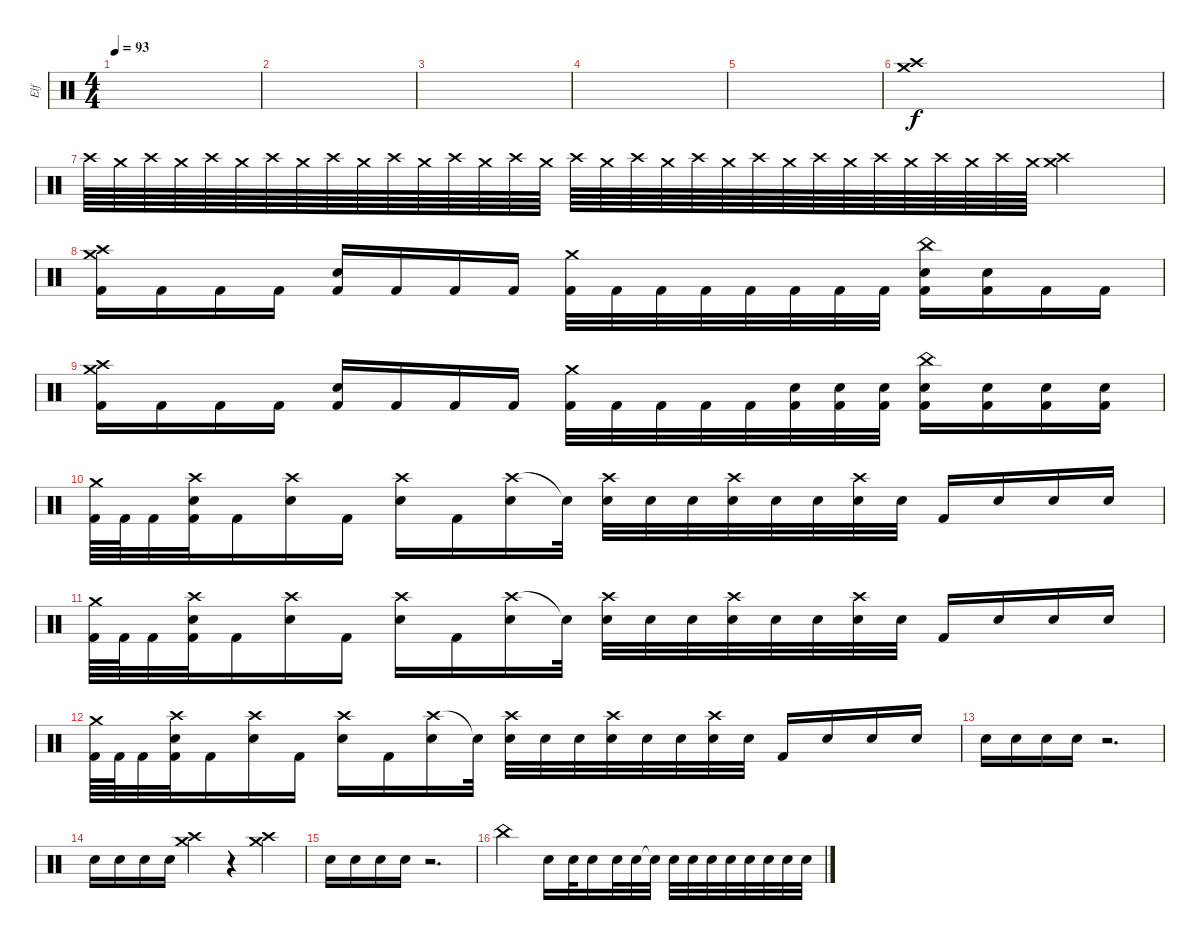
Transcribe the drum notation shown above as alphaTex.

\track ("Elf" "Elf") {instrument percussion}
\staff {score}
\articulation defaults
\ts (4 4)
\tempo 93
\clef neutral
\ks c
|
|
|
|
|
("Crash high (hit)" "Crash medium (hit)").1 |
"Crash high (hit)".64 "Crash medium (hit)".64 "Crash high (hit)".64 "Crash medium (hit)".64 "Crash high (hit)".64 "Crash medium (hit)".64 "Crash high (hit)".64 "Crash medium (hit)".64 "Crash high (hit)".64 "Crash medium (hit)".64 "Crash high (hit)".64 "Crash medium (hit)".64 "Crash high (hit)".64 "Crash medium (hit)".64 "Crash high (hit)".64 "Crash medium (hit)".64 "Crash high (hit)".64 "Crash medium (hit)".64 "Crash high (hit)".64 "Crash medium (hit)".64 "Crash high (hit)".64 "Crash medium (hit)".64 "Crash high (hit)".64 "Crash medium (hit)".64 "Crash high (hit)".64 "Crash medium (hit)".64 "Crash high (hit)".64 "Crash medium (hit)".64 "Crash high (hit)".64 "Crash medium (hit)".64 "Crash high (hit)".64 "Crash medium (hit)".64 ("Crash high (hit)" "Crash medium (hit)").2 |
("Crash high (hit)" "Crash medium (hit)" "Kick (hit) 2").16 "Kick (hit) 2".16 "Kick (hit) 2".16 "Kick (hit) 2".16 ("Snare (hit) 2" "Kick (hit) 2").16 "Kick (hit) 2".16 "Kick (hit) 2".16 "Kick (hit) 2".16 ("Crash medium (hit)" "Kick (hit) 2").32 "Kick (hit) 2".32 "Kick (hit) 2".32 "Kick (hit) 2".32 "Kick (hit) 2".32 "Kick (hit) 2".32 "Kick (hit) 2".32 "Kick (hit) 2".32 ("China (hit)" "Snare (hit) 2" "Kick (hit) 2").16 ("Snare (hit) 2" "Kick (hit) 2").16 "Kick (hit) 2".16 "Kick (hit) 2".16 |
("Crash high (hit)" "Crash medium (hit)" "Kick (hit) 2").16 "Kick (hit) 2".16 "Kick (hit) 2".16 "Kick (hit) 2".16 ("Snare (hit) 2" "Kick (hit) 2").16 "Kick (hit) 2".16 "Kick (hit) 2".16 "Kick (hit) 2".16 ("Crash medium (hit)" "Kick (hit) 2").32 "Kick (hit) 2".32 "Kick (hit) 2".32 "Kick (hit) 2".32 "Kick (hit) 2".32 ("Snare (hit) 2" "Kick (hit) 2").32 ("Snare (hit) 2" "Kick (hit) 2").32 ("Snare (hit) 2" "Kick (hit) 2").32 ("China (hit)" "Snare (hit) 2" "Kick (hit) 2").16 ("Snare (hit) 2" "Kick (hit) 2").16 ("Snare (hit) 2" "Kick (hit) 2").16 ("Snare (hit) 2" "Kick (hit) 2").16 |
("Crash medium (hit)" "Kick (hit) 2").64 "Kick (hit) 2".64 "Kick (hit) 2".32 ("Crash high (hit)" "Snare (hit) 2" "Kick (hit) 2").32 "Kick (hit) 2".16 ("Crash high (hit)" "Snare (hit) 2").16 "Kick (hit) 2".16 ("Crash high (hit)" "Snare (hit) 2").16 "Kick (hit) 2".16 ("Crash high (hit)" "Snare (hit) 2").16 "Snare (hit)"{t}.32 ("Crash high (hit)" "Snare (hit) 2").32 "Snare (hit) 2".32 "Snare (hit) 2".32 ("Crash high (hit)" "Snare (hit) 2").32 "Snare (hit) 2".32 "Snare (hit) 2".32 ("Crash high (hit)" "Snare (hit) 2").32 "Snare (hit) 2".32 "Kick (hit) 2".16 "Snare (hit) 2".16 "Snare (hit) 2".16 "Snare (hit) 2".16 |
("Crash medium (hit)" "Kick (hit) 2").64 "Kick (hit) 2".64 "Kick (hit) 2".32 ("Crash high (hit)" "Snare (hit) 2" "Kick (hit) 2").32 "Kick (hit) 2".16 ("Crash high (hit)" "Snare (hit) 2").16 "Kick (hit) 2".16 ("Crash high (hit)" "Snare (hit) 2").16 "Kick (hit) 2".16 ("Crash high (hit)" "Snare (hit) 2").16 "Snare (hit)"{t}.32 ("Crash high (hit)" "Snare (hit) 2").32 "Snare (hit) 2".32 "Snare (hit) 2".32 ("Crash high (hit)" "Snare (hit) 2").32 "Snare (hit) 2".32 "Snare (hit) 2".32 ("Crash high (hit)" "Snare (hit) 2").32 "Snare (hit) 2".32 "Kick (hit) 2".16 "Snare (hit) 2".16 "Snare (hit) 2".16 "Snare (hit) 2".16 |
("Crash medium (hit)" "Kick (hit) 2").64 "Kick (hit) 2".64 "Kick (hit) 2".32 ("Crash high (hit)" "Snare (hit) 2" "Kick (hit) 2").32 "Kick (hit) 2".16 ("Crash high (hit)" "Snare (hit) 2").16 "Kick (hit) 2".16 ("Crash high (hit)" "Snare (hit) 2").16 "Kick (hit) 2".16 ("Crash high (hit)" "Snare (hit) 2").16 "Snare (hit)"{t}.32 ("Crash high (hit)" "Snare (hit) 2").32 "Snare (hit) 2".32 "Snare (hit) 2".32 ("Crash high (hit)" "Snare (hit) 2").32 "Snare (hit) 2".32 "Snare (hit) 2".32 ("Crash high (hit)" "Snare (hit) 2").32 "Snare (hit) 2".32 "Kick (hit) 2".16 "Snare (hit) 2".16 "Snare (hit) 2".16 "Snare (hit) 2".16 |
"Snare (hit) 2".16 "Snare (hit) 2".16 "Snare (hit) 2".16 "Snare (hit) 2".16 r.2{d} |
"Snare (hit) 2".16 "Snare (hit) 2".16 "Snare (hit) 2".16 "Snare (hit) 2".16 ("Crash medium (hit)" "Crash high (hit)").4 r.4 ("Crash medium (hit)" "Crash high (hit)").4 |
"Snare (hit) 2".16 "Snare (hit) 2".16 "Snare (hit) 2".16 "Snare (hit) 2".16 r.2{d} |
"China (hit)".2 "Snare (hit) 2".16 "Snare (hit) 2".32 "Snare (hit) 2".16 "Snare (hit) 2".32 "Snare (hit) 2".32 "Snare (hit)"{t}.32 "Snare (hit) 2".32 "Snare (hit) 2".32 "Snare (hit) 2".32 "Snare (hit) 2".32 "Snare (hit) 2".32 "Snare (hit) 2".32 "Snare (hit) 2".32 "Snare (hit) 2".32
